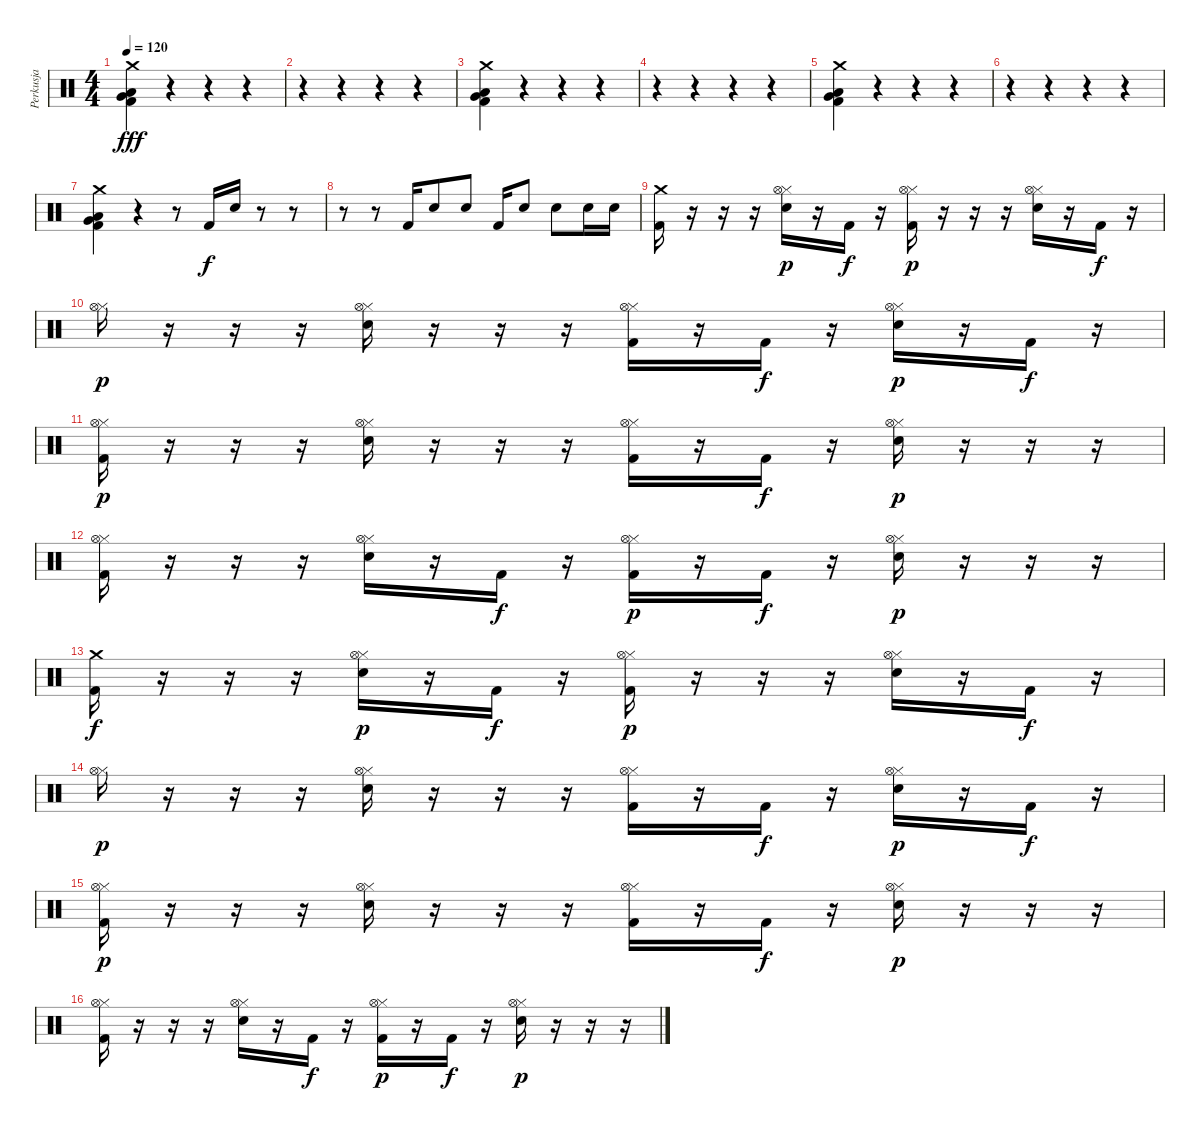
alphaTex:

\track ("Perkusja" "Perkusja") {instrument percussion}
\staff {score}
\articulation defaults
\ts (4 4)
\tempo 120
\clef neutral
\ks c
("Kick (hit) 2" "Very Low Tom (hit)" "Low Tom (hit)" "Crash medium (hit)").4{dy fff} r.4 r.4 r.4 |
r.4 r.4 r.4 r.4 |
("Kick (hit) 2" "Very Low Tom (hit)" "Low Tom (hit)" "Crash medium (hit)").4 r.4 r.4 r.4 |
r.4 r.4 r.4 r.4 |
("Kick (hit) 2" "Very Low Tom (hit)" "Low Tom (hit)" "Crash medium (hit)").4 r.4 r.4 r.4 |
r.4 r.4 r.4 r.4 |
("Kick (hit) 2" "Very Low Tom (hit)" "Low Tom (hit)" "Crash medium (hit)").4 r.4 r.8 "Kick (hit) 2".16{dy f} "Electric Snare (hit)".16 r.8 r.8 |
r.8 r.8 "Kick (hit) 2".16 "Electric Snare (hit)".8 "Electric Snare (hit)".8 "Kick (hit) 2".16 "Electric Snare (hit)".8 "Electric Snare (hit)".8 "Electric Snare (hit)".16 "Electric Snare (hit)".16 |
("Kick (hit) 2" "Crash medium (hit)").16 r.16 r.16 r.16 ("Electric Snare (hit)" "Hi-Hat (closed)" "Hi-Hat (open)").16{dy p} r.16 "Kick (hit) 2".16{dy f} r.16 ("Kick (hit) 2" "Hi-Hat (closed)" "Hi-Hat (open)").16{dy p} r.16 r.16 r.16 ("Electric Snare (hit)" "Hi-Hat (closed)" "Hi-Hat (open)").16 r.16 "Kick (hit) 2".16{dy f} r.16 |
("Hi-Hat (closed)" "Hi-Hat (open)").16{dy p} r.16 r.16 r.16 ("Electric Snare (hit)" "Hi-Hat (closed)" "Hi-Hat (open)").16 r.16 r.16 r.16 ("Kick (hit) 2" "Hi-Hat (closed)" "Hi-Hat (open)").16 r.16 "Kick (hit) 2".16{dy f} r.16 ("Electric Snare (hit)" "Hi-Hat (closed)" "Hi-Hat (open)").16{dy p} r.16 "Kick (hit) 2".16{dy f} r.16 |
("Kick (hit) 2" "Hi-Hat (closed)" "Hi-Hat (open)").16{dy p} r.16 r.16 r.16 ("Electric Snare (hit)" "Hi-Hat (closed)" "Hi-Hat (open)").16 r.16 r.16 r.16 ("Kick (hit) 2" "Hi-Hat (closed)" "Hi-Hat (open)").16 r.16 "Kick (hit) 2".16{dy f} r.16 ("Electric Snare (hit)" "Hi-Hat (closed)" "Hi-Hat (open)").16{dy p} r.16 r.16 r.16 |
("Kick (hit) 2" "Hi-Hat (closed)" "Hi-Hat (open)").16 r.16 r.16 r.16 ("Electric Snare (hit)" "Hi-Hat (closed)" "Hi-Hat (open)").16 r.16 "Kick (hit) 2".16{dy f} r.16 ("Kick (hit) 2" "Hi-Hat (closed)" "Hi-Hat (open)").16{dy p} r.16 "Kick (hit) 2".16{dy f} r.16 ("Electric Snare (hit)" "Hi-Hat (closed)" "Hi-Hat (open)").16{dy p} r.16 r.16 r.16 |
("Kick (hit) 2" "Crash medium (hit)").16{dy f} r.16 r.16 r.16 ("Electric Snare (hit)" "Hi-Hat (closed)" "Hi-Hat (open)").16{dy p} r.16 "Kick (hit) 2".16{dy f} r.16 ("Kick (hit) 2" "Hi-Hat (closed)" "Hi-Hat (open)").16{dy p} r.16 r.16 r.16 ("Electric Snare (hit)" "Hi-Hat (closed)" "Hi-Hat (open)").16 r.16 "Kick (hit) 2".16{dy f} r.16 |
("Hi-Hat (closed)" "Hi-Hat (open)").16{dy p} r.16 r.16 r.16 ("Electric Snare (hit)" "Hi-Hat (closed)" "Hi-Hat (open)").16 r.16 r.16 r.16 ("Kick (hit) 2" "Hi-Hat (closed)" "Hi-Hat (open)").16 r.16 "Kick (hit) 2".16{dy f} r.16 ("Electric Snare (hit)" "Hi-Hat (closed)" "Hi-Hat (open)").16{dy p} r.16 "Kick (hit) 2".16{dy f} r.16 |
("Kick (hit) 2" "Hi-Hat (closed)" "Hi-Hat (open)").16{dy p} r.16 r.16 r.16 ("Electric Snare (hit)" "Hi-Hat (closed)" "Hi-Hat (open)").16 r.16 r.16 r.16 ("Kick (hit) 2" "Hi-Hat (closed)" "Hi-Hat (open)").16 r.16 "Kick (hit) 2".16{dy f} r.16 ("Electric Snare (hit)" "Hi-Hat (closed)" "Hi-Hat (open)").16{dy p} r.16 r.16 r.16 |
("Kick (hit) 2" "Hi-Hat (closed)" "Hi-Hat (open)").16 r.16 r.16 r.16 ("Electric Snare (hit)" "Hi-Hat (closed)" "Hi-Hat (open)").16 r.16 "Kick (hit) 2".16{dy f} r.16 ("Kick (hit) 2" "Hi-Hat (closed)" "Hi-Hat (open)").16{dy p} r.16 "Kick (hit) 2".16{dy f} r.16 ("Electric Snare (hit)" "Hi-Hat (closed)" "Hi-Hat (open)").16{dy p} r.16 r.16 r.16
